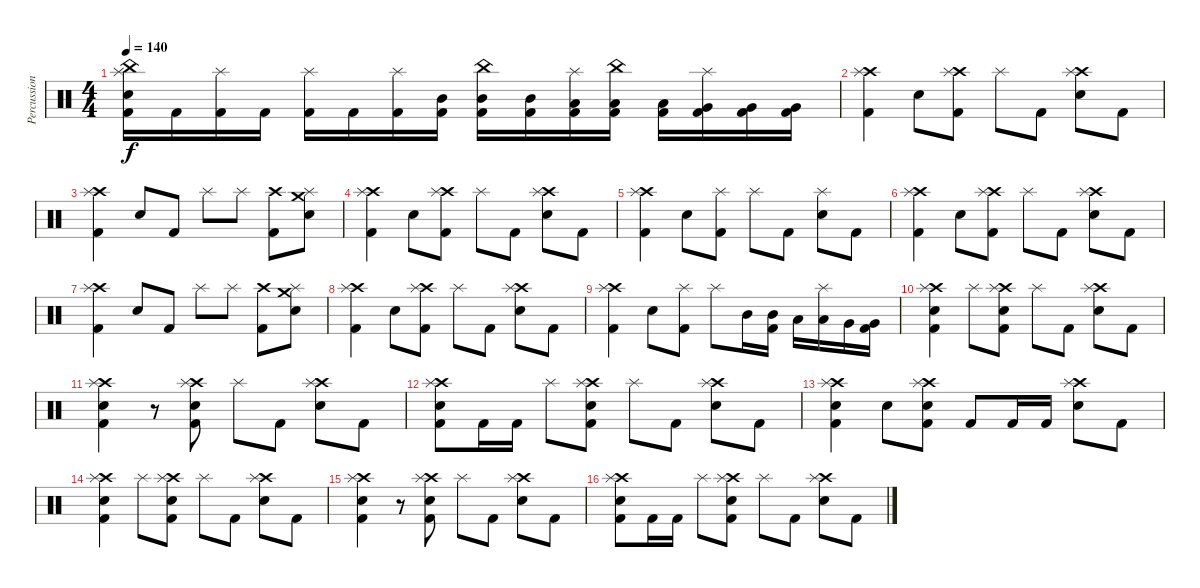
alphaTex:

\track ("Percussion" "Percussion") {instrument percussion}
\staff {score}
\articulation defaults
\ts (4 4)
\tempo 140
\clef neutral
\ks c
("China (hit)" "Splash (hit)" "Electric Snare (hit)" "Kick (hit) 2").16{dy f} "Kick (hit) 2".16 ("Splash (hit)" "Kick (hit) 2").16 "Kick (hit) 2".16 ("Splash (hit)" "Kick (hit) 2").16 "Kick (hit) 2".16 ("Splash (hit)" "Kick (hit) 2").16 ("Mid Tom (hit)" "Kick (hit) 2").16 ("China (hit)" "Mid Tom (hit)" "Kick (hit) 2").16 ("Mid Tom (hit)" "Kick (hit) 2").16 ("Splash (hit)" "Low Tom (hit)" "Kick (hit) 2").16 ("China (hit)" "Low Tom (hit)" "Kick (hit) 2").16 ("Low Tom (hit)" "Kick (hit) 2").16 ("Splash (hit)" "Very Low Tom (hit)" "Kick (hit) 2").16 ("Very Low Tom (hit)" "Kick (hit) 2").16 ("Very Low Tom (hit)" "Kick (hit) 2").16 |
("Crash high (hit)" "Splash (hit)" "Kick (hit) 2").4 "Electric Snare (hit)".8 ("Crash high (hit)" "Splash (hit)" "Kick (hit) 2").8 "Splash (hit)".8 "Kick (hit) 2".8 ("Crash high (hit)" "Splash (hit)" "Electric Snare (hit)").8 "Kick (hit) 2".8 |
("Crash high (hit)" "Splash (hit)" "Kick (hit) 2").4 "Electric Snare (hit)".8 "Kick (hit) 2".8 "Splash (hit)".8 "Splash (hit)".8 ("Crash high (hit)" "Kick (hit) 2").8 ("Crash medium (hit)" "Splash (hit)" "Electric Snare (hit)").8 |
("Crash high (hit)" "Splash (hit)" "Kick (hit) 2").4 "Electric Snare (hit)".8 ("Crash high (hit)" "Splash (hit)" "Kick (hit) 2").8 "Splash (hit)".8 "Kick (hit) 2".8 ("Crash high (hit)" "Splash (hit)" "Electric Snare (hit)").8 "Kick (hit) 2".8 |
("Crash high (hit)" "Splash (hit)" "Kick (hit) 2").4 "Electric Snare (hit)".8 ("Splash (hit)" "Kick (hit) 2").8 "Splash (hit)".8 "Kick (hit) 2".8 ("Splash (hit)" "Electric Snare (hit)").8 "Kick (hit) 2".8 |
("Crash high (hit)" "Splash (hit)" "Kick (hit) 2").4 "Electric Snare (hit)".8 ("Crash high (hit)" "Splash (hit)" "Kick (hit) 2").8 "Splash (hit)".8 "Kick (hit) 2".8 ("Crash high (hit)" "Splash (hit)" "Electric Snare (hit)").8 "Kick (hit) 2".8 |
("Crash high (hit)" "Splash (hit)" "Kick (hit) 2").4 "Electric Snare (hit)".8 "Kick (hit) 2".8 "Splash (hit)".8 "Splash (hit)".8 ("Crash high (hit)" "Kick (hit) 2").8 ("Crash medium (hit)" "Splash (hit)" "Electric Snare (hit)").8 |
("Crash high (hit)" "Splash (hit)" "Kick (hit) 2").4 "Electric Snare (hit)".8 ("Crash high (hit)" "Splash (hit)" "Kick (hit) 2").8 "Splash (hit)".8 "Kick (hit) 2".8 ("Crash high (hit)" "Splash (hit)" "Electric Snare (hit)").8 "Kick (hit) 2".8 |
("Crash high (hit)" "Splash (hit)" "Kick (hit) 2").4 "Electric Snare (hit)".8 ("Splash (hit)" "Kick (hit) 2").8 "Splash (hit)".8 "Mid Tom (hit)".16 ("Mid Tom (hit)" "Kick (hit) 2").16 "Low Tom (hit)".16 ("Splash (hit)" "Low Tom (hit)").16 "Very Low Tom (hit)".16 ("Very Low Tom (hit)" "Kick (hit) 2").16 |
("Crash high (hit)" "Splash (hit)" "Electric Snare (hit)" "Kick (hit) 2").4 "Splash (hit)".8 ("Crash high (hit)" "Splash (hit)" "Electric Snare (hit)" "Kick (hit) 2").8 "Splash (hit)".8 "Kick (hit) 2".8 ("Crash high (hit)" "Splash (hit)" "Electric Snare (hit)").8 "Kick (hit) 2".8 |
("Crash high (hit)" "Splash (hit)" "Electric Snare (hit)" "Kick (hit) 2").4 r.8 ("Crash high (hit)" "Splash (hit)" "Electric Snare (hit)" "Kick (hit) 2").8 "Splash (hit)".8 "Kick (hit) 2".8 ("Crash high (hit)" "Splash (hit)" "Electric Snare (hit)").8 "Kick (hit) 2".8 |
("Crash high (hit)" "Splash (hit)" "Electric Snare (hit)" "Kick (hit) 2").8 "Kick (hit) 2".16 "Kick (hit) 2".16 "Splash (hit)".8 ("Crash high (hit)" "Splash (hit)" "Electric Snare (hit)" "Kick (hit) 2").8 "Splash (hit)".8 "Kick (hit) 2".8 ("Crash high (hit)" "Splash (hit)" "Electric Snare (hit)").8 "Kick (hit) 2".8 |
("Crash high (hit)" "Splash (hit)" "Electric Snare (hit)" "Kick (hit) 2").4 "Electric Snare (hit)".8 ("Crash high (hit)" "Splash (hit)" "Electric Snare (hit)" "Kick (hit) 2").8 "Kick (hit) 2".8 "Kick (hit) 2".16 "Kick (hit) 2".16 ("Crash high (hit)" "Splash (hit)" "Electric Snare (hit)").8 "Kick (hit) 2".8 |
("Crash high (hit)" "Splash (hit)" "Electric Snare (hit)" "Kick (hit) 2").4 "Splash (hit)".8 ("Crash high (hit)" "Splash (hit)" "Electric Snare (hit)" "Kick (hit) 2").8 "Splash (hit)".8 "Kick (hit) 2".8 ("Crash high (hit)" "Splash (hit)" "Electric Snare (hit)").8 "Kick (hit) 2".8 |
("Crash high (hit)" "Splash (hit)" "Electric Snare (hit)" "Kick (hit) 2").4 r.8 ("Crash high (hit)" "Splash (hit)" "Electric Snare (hit)" "Kick (hit) 2").8 "Splash (hit)".8 "Kick (hit) 2".8 ("Crash high (hit)" "Splash (hit)" "Electric Snare (hit)").8 "Kick (hit) 2".8 |
("Crash high (hit)" "Splash (hit)" "Electric Snare (hit)" "Kick (hit) 2").8 "Kick (hit) 2".16 "Kick (hit) 2".16 "Splash (hit)".8 ("Crash high (hit)" "Splash (hit)" "Electric Snare (hit)" "Kick (hit) 2").8 "Splash (hit)".8 "Kick (hit) 2".8 ("Crash high (hit)" "Splash (hit)" "Electric Snare (hit)").8 "Kick (hit) 2".8
